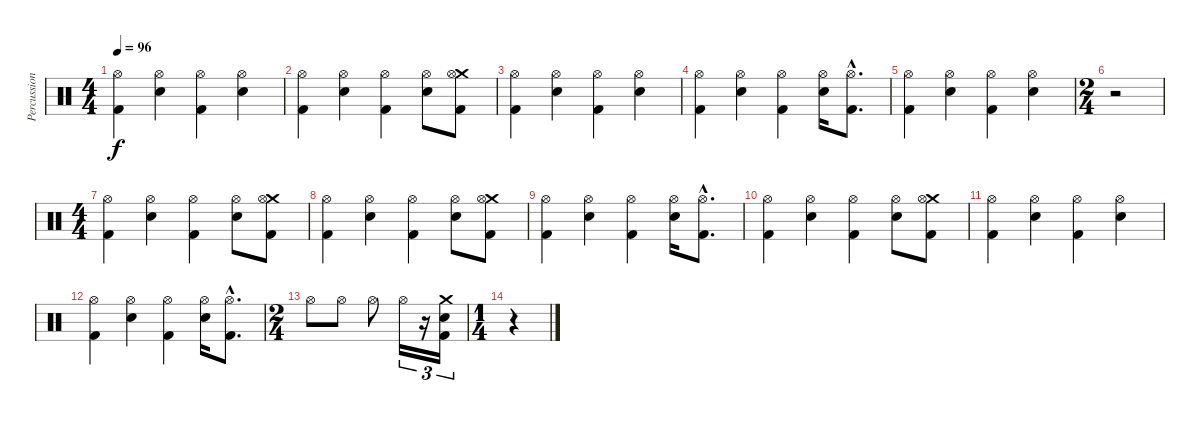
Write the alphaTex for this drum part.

\track ("Percussion" "Percussion") {instrument percussion}
\staff {score}
\articulation defaults
\ts (4 4)
\tempo 96
\clef neutral
\ks c
("Hi-Hat (open)" "Kick (hit) 2").4{dy f} ("Hi-Hat (open)" "Snare (hit) 2").4 ("Hi-Hat (open)" "Kick (hit) 2").4 ("Hi-Hat (open)" "Snare (hit) 2").4 |
("Hi-Hat (open)" "Kick (hit) 2").4 ("Hi-Hat (open)" "Snare (hit) 2").4 ("Hi-Hat (open)" "Kick (hit) 2").4 ("Hi-Hat (open)" "Snare (hit) 2").8 ("Crash medium (hit)" "Hi-Hat (open)" "Kick (hit) 2").8 |
("Hi-Hat (open)" "Kick (hit) 2").4 ("Hi-Hat (open)" "Snare (hit) 2").4 ("Hi-Hat (open)" "Kick (hit) 2").4 ("Hi-Hat (open)" "Snare (hit) 2").4 |
("Hi-Hat (open)" "Kick (hit) 2").4 ("Hi-Hat (open)" "Snare (hit) 2").4 ("Hi-Hat (open)" "Kick (hit) 2").4 ("Hi-Hat (open)" "Snare (hit) 2").16 ("Hi-Hat (open)"{hac} "Kick (hit) 2"{hac}).8{d} |
("Hi-Hat (open)" "Kick (hit) 2").4 ("Hi-Hat (open)" "Snare (hit) 2").4 ("Hi-Hat (open)" "Kick (hit) 2").4 ("Hi-Hat (open)" "Snare (hit) 2").4 |
\ts (2 4)
r.2 |
\ts (4 4)
("Hi-Hat (open)" "Kick (hit) 2").4 ("Hi-Hat (open)" "Snare (hit) 2").4 ("Hi-Hat (open)" "Kick (hit) 2").4 ("Hi-Hat (open)" "Snare (hit) 2").8 ("Crash medium (hit)" "Hi-Hat (open)" "Kick (hit) 2").8 |
("Hi-Hat (open)" "Kick (hit) 2").4 ("Hi-Hat (open)" "Snare (hit) 2").4 ("Hi-Hat (open)" "Kick (hit) 2").4 ("Hi-Hat (open)" "Snare (hit) 2").8 ("Crash medium (hit)" "Hi-Hat (open)" "Kick (hit) 2").8 |
("Hi-Hat (open)" "Kick (hit) 2").4 ("Hi-Hat (open)" "Snare (hit) 2").4 ("Hi-Hat (open)" "Kick (hit) 2").4 ("Hi-Hat (open)" "Snare (hit) 2").16 ("Hi-Hat (open)"{hac} "Kick (hit) 2"{hac}).8{d} |
("Hi-Hat (open)" "Kick (hit) 2").4 ("Hi-Hat (open)" "Snare (hit) 2").4 ("Hi-Hat (open)" "Kick (hit) 2").4 ("Hi-Hat (open)" "Snare (hit) 2").8 ("Crash medium (hit)" "Hi-Hat (open)" "Kick (hit) 2").8 |
("Hi-Hat (open)" "Kick (hit) 2").4 ("Hi-Hat (open)" "Snare (hit) 2").4 ("Hi-Hat (open)" "Kick (hit) 2").4 ("Hi-Hat (open)" "Snare (hit) 2").4 |
("Hi-Hat (open)" "Kick (hit) 2").4 ("Hi-Hat (open)" "Snare (hit) 2").4 ("Hi-Hat (open)" "Kick (hit) 2").4 ("Hi-Hat (open)" "Snare (hit) 2").16 ("Hi-Hat (open)"{hac} "Kick (hit) 2"{hac}).8{d} |
\ts (2 4)
"Hi-Hat (open)".8 "Hi-Hat (open)".8 "Hi-Hat (open)".8 "Hi-Hat (open)".16{tu (3 2)} r.16{tu (3 2)} ("Crash medium (hit)" "Snare (hit) 2" "Kick (hit) 2").16{tu (3 2)} |
\ts (1 4)
r.4
